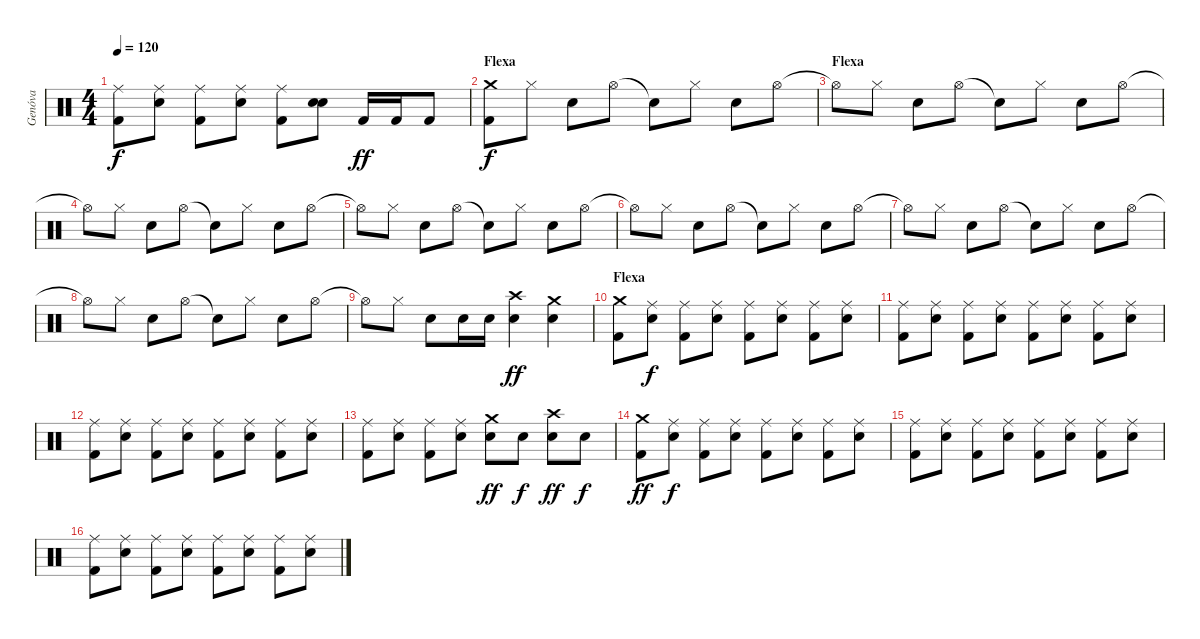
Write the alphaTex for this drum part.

\track ("Genóva" "Genóva") {instrument percussion}
\staff {score}
\articulation defaults
\ts (4 4)
\tempo 120
\clef neutral
\ks c
("Kick (hit) 2" "Ride (middle)").8{dy f} ("Snare (hit) 2" "Ride (middle)").8 ("Kick (hit) 2" "Ride (middle)").8 ("Snare (hit) 2" "Ride (middle)").8 ("Kick (hit) 2" "Ride (middle)").8 ("Snare (hit) 2" "Snare (hit) 2").8{bd 120} "Kick (hit) 2".16{dy ff} "Kick (hit) 2".16 "Kick (hit) 2".8 |
\section ("" "Flexa")
("Crash medium (hit)" "Kick (hit) 2").8{dy f} "Hi-Hat (closed)".8 "Snare (hit) 2".8 "Hi-Hat (open)".8 "Snare (hit)"{t}.8 "Hi-Hat (closed)".8 "Snare (hit) 2".8 "Hi-Hat (open)".8 |
\section ("" "Flexa")
"Hi-Hat (open)"{t}.8 "Hi-Hat (closed)".8 "Snare (hit) 2".8 "Hi-Hat (open)".8 "Snare (hit)"{t}.8 "Hi-Hat (closed)".8 "Snare (hit) 2".8 "Hi-Hat (open)".8 |
"Hi-Hat (open)"{t}.8 "Hi-Hat (closed)".8 "Snare (hit) 2".8 "Hi-Hat (open)".8 "Snare (hit)"{t}.8 "Hi-Hat (closed)".8 "Snare (hit) 2".8 "Hi-Hat (open)".8 |
"Hi-Hat (open)"{t}.8 "Hi-Hat (closed)".8 "Snare (hit) 2".8 "Hi-Hat (open)".8 "Snare (hit)"{t}.8 "Hi-Hat (closed)".8 "Snare (hit) 2".8 "Hi-Hat (open)".8 |
"Hi-Hat (open)"{t}.8 "Hi-Hat (closed)".8 "Snare (hit) 2".8 "Hi-Hat (open)".8 "Snare (hit)"{t}.8 "Hi-Hat (closed)".8 "Snare (hit) 2".8 "Hi-Hat (open)".8 |
"Hi-Hat (open)"{t}.8 "Hi-Hat (closed)".8 "Snare (hit) 2".8 "Hi-Hat (open)".8 "Snare (hit)"{t}.8 "Hi-Hat (closed)".8 "Snare (hit) 2".8 "Hi-Hat (open)".8 |
"Hi-Hat (open)"{t}.8 "Hi-Hat (closed)".8 "Snare (hit) 2".8 "Hi-Hat (open)".8 "Snare (hit)"{t}.8 "Hi-Hat (closed)".8 "Snare (hit) 2".8 "Hi-Hat (open)".8 |
"Hi-Hat (open)"{t}.8 "Hi-Hat (closed)".8 "Snare (hit) 2".8 "Snare (hit) 2".16 "Snare (hit) 2".16 ("Snare (hit) 2" "Crash high (hit)").4{dy ff} ("Snare (hit) 2" "Crash medium (hit)").4 |
\section ("" "Flexa")
("Kick (hit) 2" "Crash medium (hit)").8 ("Snare (hit) 2" "Ride (middle)").8{dy f} ("Kick (hit) 2" "Ride (middle)").8 ("Snare (hit) 2" "Ride (middle)").8 ("Kick (hit) 2" "Ride (middle)").8 ("Snare (hit) 2" "Ride (middle)").8 ("Kick (hit) 2" "Ride (middle)").8 ("Snare (hit) 2" "Ride (middle)").8 |
("Kick (hit) 2" "Ride (middle)").8 ("Snare (hit) 2" "Ride (middle)").8 ("Kick (hit) 2" "Ride (middle)").8 ("Snare (hit) 2" "Ride (middle)").8 ("Kick (hit) 2" "Ride (middle)").8 ("Snare (hit) 2" "Ride (middle)").8 ("Kick (hit) 2" "Ride (middle)").8 ("Snare (hit) 2" "Ride (middle)").8 |
("Kick (hit) 2" "Ride (middle)").8 ("Snare (hit) 2" "Ride (middle)").8 ("Kick (hit) 2" "Ride (middle)").8 ("Snare (hit) 2" "Ride (middle)").8 ("Kick (hit) 2" "Ride (middle)").8 ("Snare (hit) 2" "Ride (middle)").8 ("Kick (hit) 2" "Ride (middle)").8 ("Snare (hit) 2" "Ride (middle)").8 |
("Kick (hit) 2" "Ride (middle)").8 ("Snare (hit) 2" "Ride (middle)").8 ("Kick (hit) 2" "Ride (middle)").8 ("Snare (hit) 2" "Ride (middle)").8 ("Snare (hit) 2" "Crash medium (hit)").8{dy ff} "Snare (hit) 2".8{dy f} ("Snare (hit) 2" "Crash high (hit)").8{dy ff} "Snare (hit) 2".8{dy f} |
("Kick (hit) 2" "Crash medium (hit)").8{dy ff} ("Snare (hit) 2" "Ride (middle)").8{dy f} ("Kick (hit) 2" "Ride (middle)").8 ("Snare (hit) 2" "Ride (middle)").8 ("Kick (hit) 2" "Ride (middle)").8 ("Snare (hit) 2" "Ride (middle)").8 ("Kick (hit) 2" "Ride (middle)").8 ("Snare (hit) 2" "Ride (middle)").8 |
("Kick (hit) 2" "Ride (middle)").8 ("Snare (hit) 2" "Ride (middle)").8 ("Kick (hit) 2" "Ride (middle)").8 ("Snare (hit) 2" "Ride (middle)").8 ("Kick (hit) 2" "Ride (middle)").8 ("Snare (hit) 2" "Ride (middle)").8 ("Kick (hit) 2" "Ride (middle)").8 ("Snare (hit) 2" "Ride (middle)").8 |
("Kick (hit) 2" "Ride (middle)").8 ("Snare (hit) 2" "Ride (middle)").8 ("Kick (hit) 2" "Ride (middle)").8 ("Snare (hit) 2" "Ride (middle)").8 ("Kick (hit) 2" "Ride (middle)").8 ("Snare (hit) 2" "Ride (middle)").8 ("Kick (hit) 2" "Ride (middle)").8 ("Snare (hit) 2" "Ride (middle)").8
